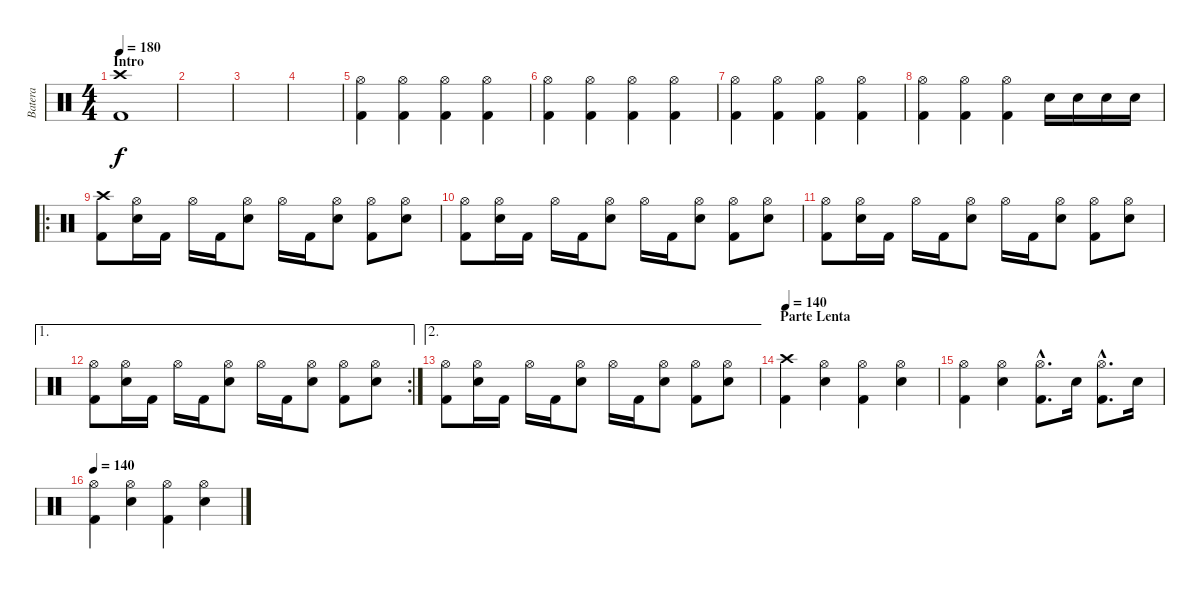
\track ("Batera" "Batera") {instrument percussion}
\staff {score}
\articulation defaults
\ts (4 4)
\section ("" "Intro")
\tempo 180
\clef neutral
\ks c
("Crash high (hit)" "Kick (hit) 2").1{dy f} |
|
|
|
("Hi-Hat (open)" "Kick (hit) 2").4 ("Hi-Hat (open)" "Kick (hit) 2").4 ("Hi-Hat (open)" "Kick (hit) 2").4 ("Hi-Hat (open)" "Kick (hit) 2").4 |
("Hi-Hat (open)" "Kick (hit) 2").4 ("Hi-Hat (open)" "Kick (hit) 2").4 ("Hi-Hat (open)" "Kick (hit) 2").4 ("Hi-Hat (open)" "Kick (hit) 2").4 |
("Hi-Hat (open)" "Kick (hit) 2").4 ("Hi-Hat (open)" "Kick (hit) 2").4 ("Hi-Hat (open)" "Kick (hit) 2").4 ("Hi-Hat (open)" "Kick (hit) 2").4 |
("Hi-Hat (open)" "Kick (hit) 2").4 ("Hi-Hat (open)" "Kick (hit) 2").4 ("Hi-Hat (open)" "Kick (hit) 2").4 "Snare (hit) 2".16 "Snare (hit) 2".16 "Snare (hit) 2".16 "Snare (hit) 2".16 |
\ro
("Crash high (hit)" "Kick (hit) 2").8 ("Hi-Hat (open)" "Snare (hit) 2").16 "Kick (hit) 2".16 "Hi-Hat (open)".16 "Kick (hit) 2".16 ("Hi-Hat (open)" "Snare (hit) 2").8 "Hi-Hat (open)".16 "Kick (hit) 2".16 ("Hi-Hat (open)" "Snare (hit) 2").8 ("Hi-Hat (open)" "Kick (hit) 2").8 ("Hi-Hat (open)" "Snare (hit) 2").8 |
("Hi-Hat (open)" "Kick (hit) 2").8 ("Hi-Hat (open)" "Snare (hit) 2").16 "Kick (hit) 2".16 "Hi-Hat (open)".16 "Kick (hit) 2".16 ("Hi-Hat (open)" "Snare (hit) 2").8 "Hi-Hat (open)".16 "Kick (hit) 2".16 ("Hi-Hat (open)" "Snare (hit) 2").8 ("Hi-Hat (open)" "Kick (hit) 2").8 ("Hi-Hat (open)" "Snare (hit) 2").8 |
("Hi-Hat (open)" "Kick (hit) 2").8 ("Hi-Hat (open)" "Snare (hit) 2").16 "Kick (hit) 2".16 "Hi-Hat (open)".16 "Kick (hit) 2".16 ("Hi-Hat (open)" "Snare (hit) 2").8 "Hi-Hat (open)".16 "Kick (hit) 2".16 ("Hi-Hat (open)" "Snare (hit) 2").8 ("Hi-Hat (open)" "Kick (hit) 2").8 ("Hi-Hat (open)" "Snare (hit) 2").8 |
\ae 1
\rc 2
("Hi-Hat (open)" "Kick (hit) 2").8 ("Hi-Hat (open)" "Snare (hit) 2").16 "Kick (hit) 2".16 "Hi-Hat (open)".16 "Kick (hit) 2".16 ("Hi-Hat (open)" "Snare (hit) 2").8 "Hi-Hat (open)".16 "Kick (hit) 2".16 ("Hi-Hat (open)" "Snare (hit) 2").8 ("Hi-Hat (open)" "Kick (hit) 2").8 ("Hi-Hat (open)" "Snare (hit) 2").8 |
\ae 2
("Hi-Hat (open)" "Kick (hit) 2").8 ("Hi-Hat (open)" "Snare (hit) 2").16 "Kick (hit) 2".16 "Hi-Hat (open)".16 "Kick (hit) 2".16 ("Hi-Hat (open)" "Snare (hit) 2").8 "Hi-Hat (open)".16 "Kick (hit) 2".16 ("Hi-Hat (open)" "Snare (hit) 2").8 ("Hi-Hat (open)" "Kick (hit) 2").8 ("Hi-Hat (open)" "Snare (hit) 2").8 |
\section ("" "Parte Lenta")
\tempo 140
("Crash high (hit)" "Kick (hit) 2").4 ("Hi-Hat (open)" "Snare (hit) 2").4 ("Hi-Hat (open)" "Kick (hit) 2").4 ("Hi-Hat (open)" "Snare (hit) 2").4 |
("Hi-Hat (open)" "Kick (hit) 2").4 ("Hi-Hat (open)" "Snare (hit) 2").4 ("Hi-Hat (open)"{hac} "Kick (hit) 2"{hac}).8{d} "Snare (hit) 2".16 ("Hi-Hat (open)"{hac} "Kick (hit) 2"{hac}).8{d} "Snare (hit) 2".16 |
\tempo 140
("Hi-Hat (open)" "Kick (hit) 2").4 ("Hi-Hat (open)" "Snare (hit) 2").4 ("Hi-Hat (open)" "Kick (hit) 2").4 ("Hi-Hat (open)" "Snare (hit) 2").4
